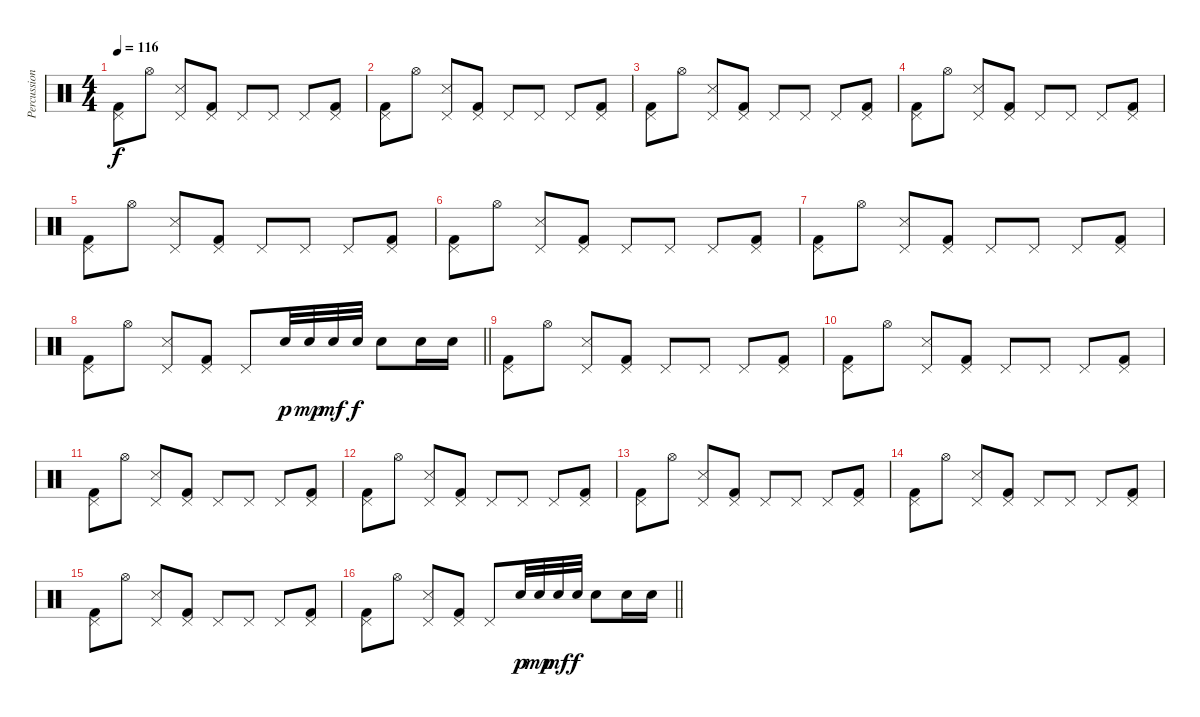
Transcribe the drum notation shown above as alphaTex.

\track ("Percussion" "Percussion") {instrument percussion}
\staff {score}
\articulation defaults
\ts (4 4)
\tempo 116
\clef neutral
\ks c
("Pedal Hi-Hat (hit)" "Kick (hit) 2").8{dy f} "Hi-Hat (open)".8 ("Pedal Hi-Hat (hit)" "Snare (side stick) 3").8 ("Pedal Hi-Hat (hit)" "Kick (hit) 2").8 "Pedal Hi-Hat (hit)".8 "Pedal Hi-Hat (hit)".8 "Pedal Hi-Hat (hit)".8 ("Pedal Hi-Hat (hit)" "Kick (hit) 2").8 |
("Pedal Hi-Hat (hit)" "Kick (hit) 2").8 "Hi-Hat (open)".8 ("Pedal Hi-Hat (hit)" "Snare (side stick) 3").8 ("Pedal Hi-Hat (hit)" "Kick (hit) 2").8 "Pedal Hi-Hat (hit)".8 "Pedal Hi-Hat (hit)".8 "Pedal Hi-Hat (hit)".8 ("Pedal Hi-Hat (hit)" "Kick (hit) 2").8 |
("Pedal Hi-Hat (hit)" "Kick (hit) 2").8 "Hi-Hat (open)".8 ("Pedal Hi-Hat (hit)" "Snare (side stick) 3").8 ("Pedal Hi-Hat (hit)" "Kick (hit) 2").8 "Pedal Hi-Hat (hit)".8 "Pedal Hi-Hat (hit)".8 "Pedal Hi-Hat (hit)".8 ("Pedal Hi-Hat (hit)" "Kick (hit) 2").8 |
("Pedal Hi-Hat (hit)" "Kick (hit) 2").8 "Hi-Hat (open)".8 ("Pedal Hi-Hat (hit)" "Snare (side stick) 3").8 ("Pedal Hi-Hat (hit)" "Kick (hit) 2").8 "Pedal Hi-Hat (hit)".8 "Pedal Hi-Hat (hit)".8 "Pedal Hi-Hat (hit)".8 ("Pedal Hi-Hat (hit)" "Kick (hit) 2").8 |
("Pedal Hi-Hat (hit)" "Kick (hit) 2").8 "Hi-Hat (open)".8 ("Pedal Hi-Hat (hit)" "Snare (side stick) 3").8 ("Pedal Hi-Hat (hit)" "Kick (hit) 2").8 "Pedal Hi-Hat (hit)".8 "Pedal Hi-Hat (hit)".8 "Pedal Hi-Hat (hit)".8 ("Pedal Hi-Hat (hit)" "Kick (hit) 2").8 |
("Pedal Hi-Hat (hit)" "Kick (hit) 2").8 "Hi-Hat (open)".8 ("Pedal Hi-Hat (hit)" "Snare (side stick) 3").8 ("Pedal Hi-Hat (hit)" "Kick (hit) 2").8 "Pedal Hi-Hat (hit)".8 "Pedal Hi-Hat (hit)".8 "Pedal Hi-Hat (hit)".8 ("Pedal Hi-Hat (hit)" "Kick (hit) 2").8 |
("Pedal Hi-Hat (hit)" "Kick (hit) 2").8 "Hi-Hat (open)".8 ("Pedal Hi-Hat (hit)" "Snare (side stick) 3").8 ("Pedal Hi-Hat (hit)" "Kick (hit) 2").8 "Pedal Hi-Hat (hit)".8 "Pedal Hi-Hat (hit)".8 "Pedal Hi-Hat (hit)".8 ("Pedal Hi-Hat (hit)" "Kick (hit) 2").8 |
\barLineRight lightlight
("Pedal Hi-Hat (hit)" "Kick (hit) 2").8 "Hi-Hat (open)".8 ("Pedal Hi-Hat (hit)" "Snare (side stick) 3").8 ("Pedal Hi-Hat (hit)" "Kick (hit) 2").8 "Pedal Hi-Hat (hit)".8 "Snare (hit) 2".32{dy p} "Snare (hit) 2".32{dy mp} "Snare (hit) 2".32{dy mf} "Snare (hit) 2".32{dy f} "Snare (hit) 2".8 "Snare (hit) 2".16 "Snare (hit) 2".16 |
("Pedal Hi-Hat (hit)" "Kick (hit) 2").8 "Hi-Hat (open)".8 ("Pedal Hi-Hat (hit)" "Snare (side stick) 3").8 ("Pedal Hi-Hat (hit)" "Kick (hit) 2").8 "Pedal Hi-Hat (hit)".8 "Pedal Hi-Hat (hit)".8 "Pedal Hi-Hat (hit)".8 ("Pedal Hi-Hat (hit)" "Kick (hit) 2").8 |
("Pedal Hi-Hat (hit)" "Kick (hit) 2").8 "Hi-Hat (open)".8 ("Pedal Hi-Hat (hit)" "Snare (side stick) 3").8 ("Pedal Hi-Hat (hit)" "Kick (hit) 2").8 "Pedal Hi-Hat (hit)".8 "Pedal Hi-Hat (hit)".8 "Pedal Hi-Hat (hit)".8 ("Pedal Hi-Hat (hit)" "Kick (hit) 2").8 |
("Pedal Hi-Hat (hit)" "Kick (hit) 2").8 "Hi-Hat (open)".8 ("Pedal Hi-Hat (hit)" "Snare (side stick) 3").8 ("Pedal Hi-Hat (hit)" "Kick (hit) 2").8 "Pedal Hi-Hat (hit)".8 "Pedal Hi-Hat (hit)".8 "Pedal Hi-Hat (hit)".8 ("Pedal Hi-Hat (hit)" "Kick (hit) 2").8 |
("Pedal Hi-Hat (hit)" "Kick (hit) 2").8 "Hi-Hat (open)".8 ("Pedal Hi-Hat (hit)" "Snare (side stick) 3").8 ("Pedal Hi-Hat (hit)" "Kick (hit) 2").8 "Pedal Hi-Hat (hit)".8 "Pedal Hi-Hat (hit)".8 "Pedal Hi-Hat (hit)".8 ("Pedal Hi-Hat (hit)" "Kick (hit) 2").8 |
("Pedal Hi-Hat (hit)" "Kick (hit) 2").8 "Hi-Hat (open)".8 ("Pedal Hi-Hat (hit)" "Snare (side stick) 3").8 ("Pedal Hi-Hat (hit)" "Kick (hit) 2").8 "Pedal Hi-Hat (hit)".8 "Pedal Hi-Hat (hit)".8 "Pedal Hi-Hat (hit)".8 ("Pedal Hi-Hat (hit)" "Kick (hit) 2").8 |
("Pedal Hi-Hat (hit)" "Kick (hit) 2").8 "Hi-Hat (open)".8 ("Pedal Hi-Hat (hit)" "Snare (side stick) 3").8 ("Pedal Hi-Hat (hit)" "Kick (hit) 2").8 "Pedal Hi-Hat (hit)".8 "Pedal Hi-Hat (hit)".8 "Pedal Hi-Hat (hit)".8 ("Pedal Hi-Hat (hit)" "Kick (hit) 2").8 |
("Pedal Hi-Hat (hit)" "Kick (hit) 2").8 "Hi-Hat (open)".8 ("Pedal Hi-Hat (hit)" "Snare (side stick) 3").8 ("Pedal Hi-Hat (hit)" "Kick (hit) 2").8 "Pedal Hi-Hat (hit)".8 "Pedal Hi-Hat (hit)".8 "Pedal Hi-Hat (hit)".8 ("Pedal Hi-Hat (hit)" "Kick (hit) 2").8 |
\barLineRight lightlight
("Pedal Hi-Hat (hit)" "Kick (hit) 2").8 "Hi-Hat (open)".8 ("Pedal Hi-Hat (hit)" "Snare (side stick) 3").8 ("Pedal Hi-Hat (hit)" "Kick (hit) 2").8 "Pedal Hi-Hat (hit)".8 "Snare (hit) 2".32{dy p} "Snare (hit) 2".32{dy mp} "Snare (hit) 2".32{dy mf} "Snare (hit) 2".32{dy f} "Snare (hit) 2".8 "Snare (hit) 2".16 "Snare (hit) 2".16
